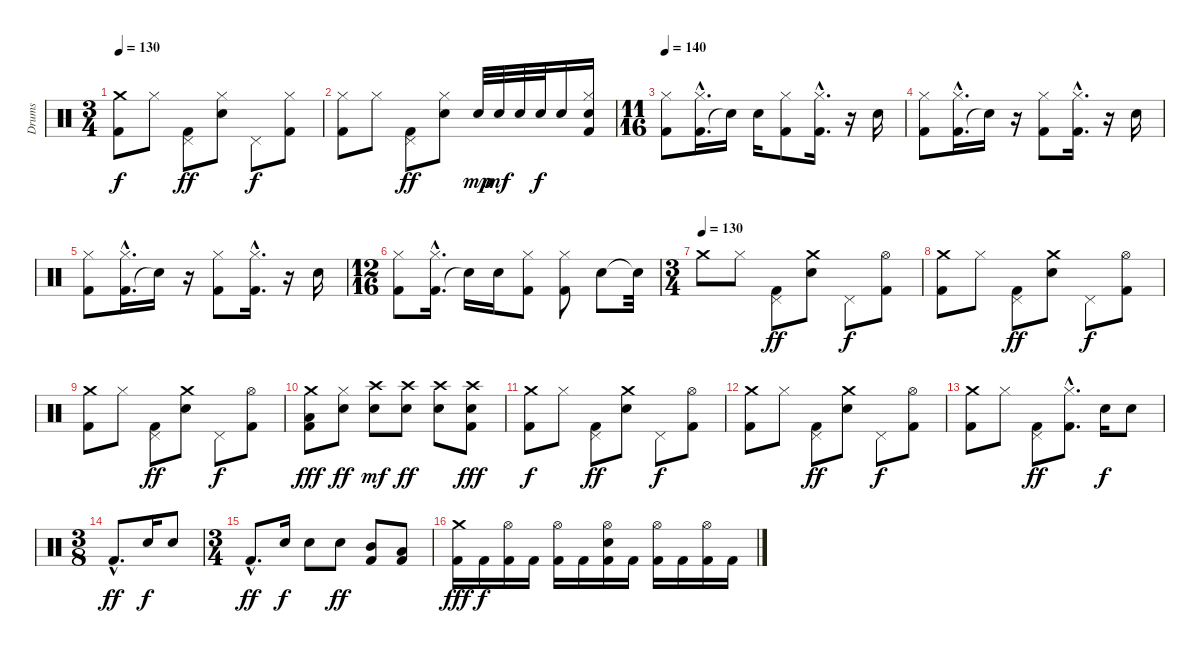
\track ("Drums" "Drums") {instrument percussion}
\staff {score}
\articulation defaults
\ts (3 4)
\tempo 130
\clef neutral
\ks c
("Kick (hit) 2" "Crash medium (hit)").8{dy f} "Hi-Hat (closed)".8 ("Kick (hit) 2" "Pedal Hi-Hat (hit)").8{dy ff} ("Electric Snare (hit)" "Hi-Hat (closed)").8 "Pedal Hi-Hat (hit)".8{dy f} ("Kick (hit) 2" "Hi-Hat (closed)").8 |
("Kick (hit) 2" "Hi-Hat (closed)").8 "Hi-Hat (closed)".8 ("Kick (hit) 2" "Pedal Hi-Hat (hit)").8{dy ff} ("Electric Snare (hit)" "Hi-Hat (closed)").8 "Electric Snare (hit)".32{dy mp} "Electric Snare (hit)".32{dy mf} "Electric Snare (hit)".32 "Electric Snare (hit)".32{dy f} "Electric Snare (hit)".16 ("Kick (hit) 2" "Electric Snare (hit)" "Hi-Hat (closed)").16 |
\ts (11 16)
\tempo 140
("Kick (hit) 2" "Hi-Hat (closed)").8 ("Kick (hit) 2"{hac} "Hi-Hat (closed)"{hac}).16{d} "Snare (hit)"{t}.16 "Electric Snare (hit)".16 ("Kick (hit) 2" "Hi-Hat (closed)").8 ("Kick (hit) 2"{hac} "Hi-Hat (closed)"{hac}).16{d} r.16 "Electric Snare (hit)".16 |
("Kick (hit) 2" "Hi-Hat (closed)").8 ("Kick (hit) 2"{hac} "Hi-Hat (closed)"{hac}).16{d} "Snare (hit)"{t}.16 r.16 ("Kick (hit) 2" "Hi-Hat (closed)").8 ("Kick (hit) 2"{hac} "Hi-Hat (closed)"{hac}).16{d} r.16 "Electric Snare (hit)".16 |
("Kick (hit) 2" "Hi-Hat (closed)").8 ("Kick (hit) 2"{hac} "Hi-Hat (closed)"{hac}).16{d} "Snare (hit)"{t}.16 r.16 ("Kick (hit) 2" "Hi-Hat (closed)").8 ("Kick (hit) 2"{hac} "Hi-Hat (closed)"{hac}).16{d} r.16 "Electric Snare (hit)".16 |
\ts (12 16)
("Kick (hit) 2" "Hi-Hat (closed)").8 ("Kick (hit) 2"{hac} "Hi-Hat (closed)"{hac}).16{d} "Snare (hit)"{t}.16 "Electric Snare (hit)".16 ("Kick (hit) 2" "Hi-Hat (closed)").8 ("Kick (hit) 2" "Hi-Hat (closed)").8 "Electric Snare (hit)".8 "Snare (hit)"{t}.32 |
\ts (3 4)
\tempo (130)
"Crash medium (hit)".8 "Hi-Hat (closed)".8 ("Kick (hit) 2" "Pedal Hi-Hat (hit)").8{dy ff} ("Electric Snare (hit)" "Crash medium (hit)").8 "Pedal Hi-Hat (hit)".8{dy f} ("Kick (hit) 2" "Hi-Hat (open)").8 |
("Kick (hit) 2" "Crash medium (hit)").8 "Hi-Hat (closed)".8 ("Kick (hit) 2" "Pedal Hi-Hat (hit)").8{dy ff} ("Electric Snare (hit)" "Crash medium (hit)").8 "Pedal Hi-Hat (hit)".8{dy f} ("Kick (hit) 2" "Hi-Hat (open)").8 |
("Kick (hit) 2" "Crash medium (hit)").8 "Hi-Hat (closed)".8 ("Kick (hit) 2" "Pedal Hi-Hat (hit)").8{dy ff} ("Electric Snare (hit)" "Crash medium (hit)").8 "Pedal Hi-Hat (hit)".8{dy f} ("Kick (hit) 2" "Hi-Hat (open)").8 |
("Kick (hit) 2" "Low Tom (hit)" "Crash medium (hit)").8{dy fff} ("Electric Snare (hit)" "Hi-Hat (closed)").8{dy ff} ("Electric Snare (hit)" "Crash high (hit)").8{dy mf} ("Electric Snare (hit)" "Crash high (hit)").8{dy ff} ("Electric Snare (hit)" "Crash high (hit)").8 ("Kick (hit) 2" "Electric Snare (hit)" "Crash high (hit)").8{dy fff} |
("Kick (hit) 2" "Crash medium (hit)").8{dy f} "Hi-Hat (closed)".8 ("Kick (hit) 2" "Pedal Hi-Hat (hit)").8{dy ff} ("Electric Snare (hit)" "Crash medium (hit)").8 "Pedal Hi-Hat (hit)".8{dy f} ("Kick (hit) 2" "Hi-Hat (open)").8 |
("Kick (hit) 2" "Crash medium (hit)").8 "Hi-Hat (closed)".8 ("Kick (hit) 2" "Pedal Hi-Hat (hit)").8{dy ff} ("Electric Snare (hit)" "Crash medium (hit)").8 "Pedal Hi-Hat (hit)".8{dy f} ("Kick (hit) 2" "Hi-Hat (open)").8 |
("Kick (hit) 2" "Crash medium (hit)").8 "Hi-Hat (closed)".8 ("Kick (hit) 2" "Pedal Hi-Hat (hit)").8{dy ff} ("Kick (hit) 2"{hac} "Hi-Hat (closed)"{hac}).8{d} "Electric Snare (hit)".16{dy f} "Electric Snare (hit)".8 |
\ts (3 8)
"Kick (hit) 2"{hac}.8{d dy ff} "Electric Snare (hit)".16{dy f} "Electric Snare (hit)".8 |
\ts (3 4)
"Kick (hit) 2"{hac}.8{d dy ff} "Electric Snare (hit)".16{dy f} "Electric Snare (hit)".8 "Electric Snare (hit)".8{dy ff} ("Kick (hit) 2" "Mid Tom (hit)").8 ("Kick (hit) 2" "Low Tom (hit)").8 |
("Kick (hit) 2" "Crash medium (hit)").16{dy fff} "Kick (hit) 2".16{dy f} ("Kick (hit) 2" "Hi-Hat (open)").16 "Kick (hit) 2".16 ("Kick (hit) 2" "Hi-Hat (open)").16 "Kick (hit) 2".16 ("Kick (hit) 2" "Electric Snare (hit)" "Hi-Hat (open)").16 "Kick (hit) 2".16 ("Kick (hit) 2" "Hi-Hat (open)").16 "Kick (hit) 2".16 ("Kick (hit) 2" "Hi-Hat (open)").16 "Kick (hit) 2".16
